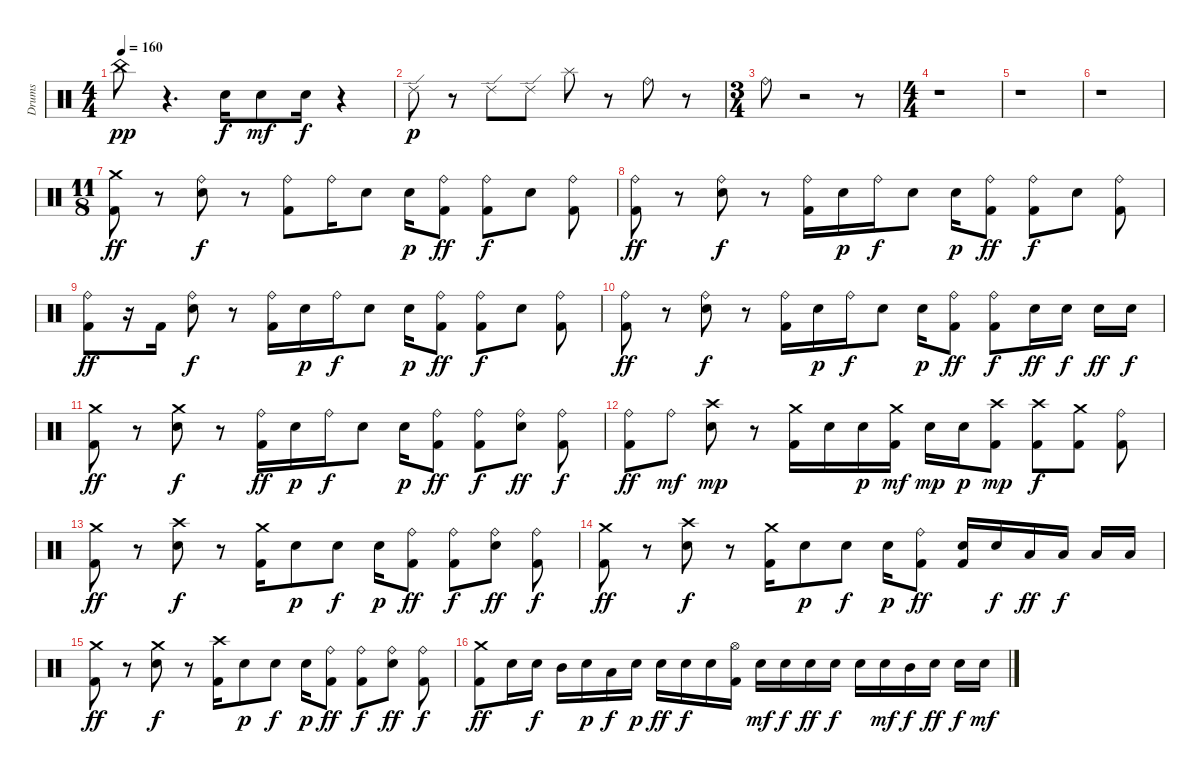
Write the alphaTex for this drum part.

\track ("Drums" "Drums") {instrument percussion}
\staff {score}
\articulation defaults
\ts (4 4)
\tempo 160
\clef neutral
\ks c "China (hit)".8{dy pp}
r.4{d} "Electric Snare (hit)".16{dy f} "Electric Snare (hit)".8{dy mf} "Electric Snare (hit)".16{dy f} r.4 |
"Ride (edge) 2".8{dy p} r.8 "Ride (edge) 2".8 "Ride (edge) 2".8 "Splash (hit)".8 r.8 "Ride (bell)".8 r.8 |
\ts (3 4)
"Ride (bell)".8 r.2 r.8 |
\ts (4 4)
r.1 |
r.1 |
r.1 |
\ts (11 8)
("Kick (hit) 2" "Crash medium (hit)").8{dy ff} r.8 ("Electric Snare (hit)" "Ride (bell)").8{dy f} r.8 ("Kick (hit) 2" "Ride (bell)").8 "Ride (bell)".16 "Electric Snare (hit)".8 "Electric Snare (hit)".16{dy p} ("Kick (hit) 2" "Ride (bell)").8{dy ff} ("Kick (hit) 2" "Ride (bell)").8{dy f} "Electric Snare (hit)".8 ("Kick (hit) 2" "Ride (bell)").8 |
("Kick (hit) 2" "Ride (bell)").8{dy ff} r.8 ("Electric Snare (hit)" "Ride (bell)").8{dy f} r.8 ("Kick (hit) 2" "Ride (bell)").16 "Electric Snare (hit)".16{dy p} "Ride (bell)".16{dy f} "Electric Snare (hit)".8 "Electric Snare (hit)".16{dy p} ("Kick (hit) 2" "Ride (bell)").8{dy ff} ("Kick (hit) 2" "Ride (bell)").8{dy f} "Electric Snare (hit)".8 ("Kick (hit) 2" "Ride (bell)").8 |
("Kick (hit) 2" "Ride (bell)").8{dy ff} r.16 "Kick (hit) 2".16 ("Electric Snare (hit)" "Ride (bell)").8{dy f} r.8 ("Kick (hit) 2" "Ride (bell)").16 "Electric Snare (hit)".16{dy p} "Ride (bell)".16{dy f} "Electric Snare (hit)".8 "Electric Snare (hit)".16{dy p} ("Kick (hit) 2" "Ride (bell)").8{dy ff} ("Kick (hit) 2" "Ride (bell)").8{dy f} "Electric Snare (hit)".8 ("Kick (hit) 2" "Ride (bell)").8 |
("Kick (hit) 2" "Ride (bell)").8{dy ff} r.8 ("Electric Snare (hit)" "Ride (bell)").8{dy f} r.8 ("Kick (hit) 2" "Ride (bell)").16 "Electric Snare (hit)".16{dy p} "Ride (bell)".16{dy f} "Electric Snare (hit)".8 "Electric Snare (hit)".16{dy p} ("Kick (hit) 2" "Ride (bell)").8{dy ff} ("Kick (hit) 2" "Ride (bell)").8{dy f} "Electric Snare (hit)".16{dy ff} "Electric Snare (hit)".16{dy f} "Electric Snare (hit)".16{dy ff} "Electric Snare (hit)".16{dy f} |
("Kick (hit) 2" "Crash medium (hit)").8{dy ff} r.8 ("Electric Snare (hit)" "Crash medium (hit)").8{dy f} r.8 ("Kick (hit) 2" "Ride (bell)").16{dy ff} "Electric Snare (hit)".16{dy p} "Ride (bell)".16{dy f} "Electric Snare (hit)".8 "Electric Snare (hit)".16{dy p} ("Kick (hit) 2" "Ride (bell)").8{dy ff} ("Kick (hit) 2" "Ride (bell)").8{dy f} ("Electric Snare (hit)" "Ride (bell)").8{dy ff} ("Kick (hit) 2" "Ride (bell)").8{dy f} |
("Kick (hit) 2" "Ride (bell)").8{dy ff} "Ride (bell)".8{dy mf} ("Electric Snare (hit)" "Crash high (hit)").8{dy mp} r.8 ("Kick (hit) 2" "Crash medium (hit)").16 "Electric Snare (hit)".16 "Electric Snare (hit)".16{dy p} ("Kick (hit) 2" "Crash medium (hit)").16{dy mf} "Electric Snare (hit)".16{dy mp} "Electric Snare (hit)".16{dy p} ("Kick (hit) 2" "Crash high (hit)").8{dy mp} ("Kick (hit) 2" "Crash high (hit)").8{dy f} ("Kick (hit) 2" "Crash medium (hit)").8 ("Kick (hit) 2" "Ride (bell)").8 |
("Kick (hit) 2" "Crash medium (hit)").8{dy ff} r.8 ("Electric Snare (hit)" "Crash high (hit)").8{dy f} r.8 ("Kick (hit) 2" "Crash medium (hit)").16 "Electric Snare (hit)".8{dy p} "Electric Snare (hit)".8{dy f} "Electric Snare (hit)".16{dy p} ("Kick (hit) 2" "Ride (bell)").8{dy ff} ("Kick (hit) 2" "Ride (bell)").8{dy f} ("Electric Snare (hit)" "Ride (bell)").8{dy ff} ("Kick (hit) 2" "Ride (bell)").8{dy f} |
("Kick (hit) 2" "Crash medium (hit)").8{dy ff} r.8 ("Electric Snare (hit)" "Crash high (hit)").8{dy f} r.8 ("Kick (hit) 2" "Crash medium (hit)").16 "Electric Snare (hit)".8{dy p} "Electric Snare (hit)".8{dy f} "Electric Snare (hit)".16{dy p} ("Kick (hit) 2" "Ride (bell)").8{dy ff} ("Kick (hit) 2" "Electric Snare (hit)").16 "Electric Snare (hit)".16{dy f} "Low Tom (hit)".16{dy ff} "Low Tom (hit)".16{dy f} "Low Tom (hit)".16 "Low Tom (hit)".16 |
("Kick (hit) 2" "Crash medium (hit)").8{dy ff} r.8 ("Electric Snare (hit)" "Crash medium (hit)").8{dy f} r.8 ("Kick (hit) 2" "Crash high (hit)").16 "Electric Snare (hit)".8{dy p} "Electric Snare (hit)".8{dy f} "Electric Snare (hit)".16{dy p} ("Kick (hit) 2" "Ride (bell)").8{dy ff} ("Kick (hit) 2" "Ride (bell)").8{dy f} ("Electric Snare (hit)" "Ride (bell)").8{dy ff} ("Kick (hit) 2" "Ride (bell)").8{dy f} |
("Crash medium (hit)" "Kick (hit) 2").8{dy ff} "Electric Snare (hit)".16 "Electric Snare (hit)".16{dy f} "Mid Tom (hit)".16 "Electric Snare (hit)".16{dy p} "Low Tom (hit)".16{dy f} "Electric Snare (hit)".16{dy p} "Electric Snare (hit)".16{dy ff} "Electric Snare (hit)".16{dy f} "Electric Snare (hit)".16 ("Kick (hit) 2" "Hi-Hat (open)").16 "Electric Snare (hit)".16{dy mf} "Electric Snare (hit)".16{dy f} "Electric Snare (hit)".16{dy ff} "Electric Snare (hit)".16{dy f} "Electric Snare (hit)".16 "Electric Snare (hit)".16{dy mf} "Mid Tom (hit)".16{dy f} "Electric Snare (hit)".16{dy ff} "Electric Snare (hit)".16{dy f} "Electric Snare (hit)".16{dy mf}
